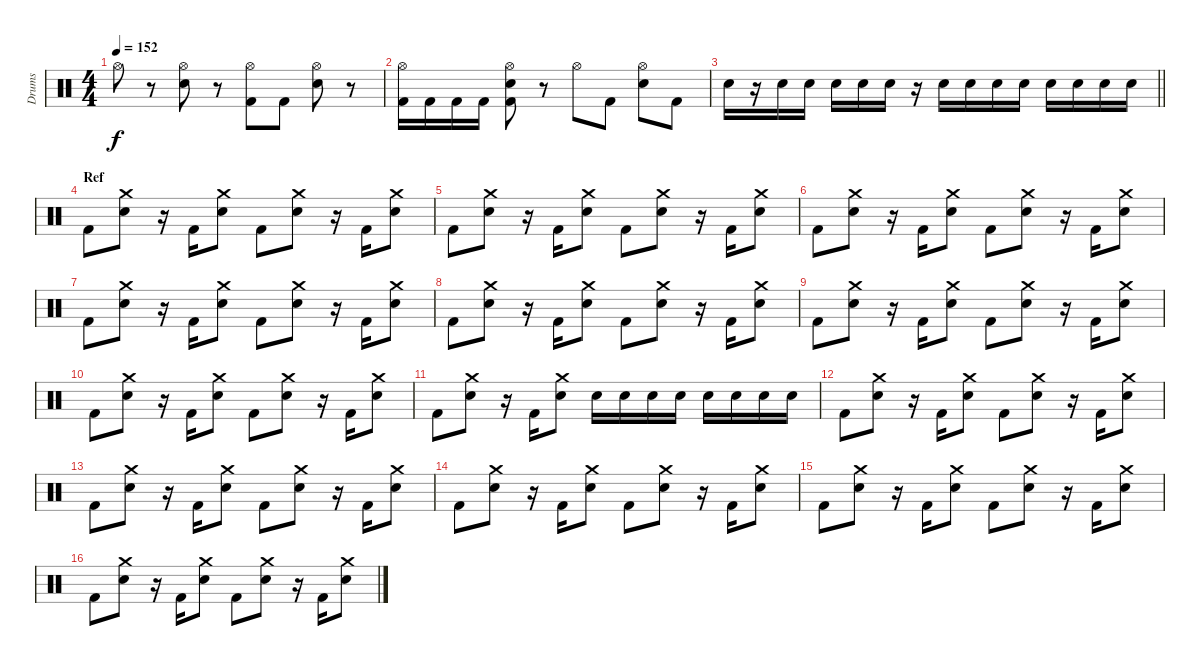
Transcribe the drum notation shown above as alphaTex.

\track ("Drums" "Drums") {instrument percussion}
\staff
\articulation defaults
\ts (4 4)
\tempo 152
\clef neutral
\ks c "Hi-Hat (open)".8{dy f}
r.8 ("Hi-Hat (open)" "Electric Snare (hit)").8 r.8 ("Hi-Hat (open)" "Kick (hit) 2").8 "Kick (hit) 2".8 ("Hi-Hat (open)" "Electric Snare (hit)").8 r.8 |
("Hi-Hat (open)" "Kick (hit) 2").16 "Kick (hit) 2".16 "Kick (hit) 2".16 "Kick (hit) 2".16 ("Hi-Hat (open)" "Electric Snare (hit)" "Kick (hit) 2").8 r.8 "Hi-Hat (open)".8 "Kick (hit) 2".8 ("Hi-Hat (open)" "Electric Snare (hit)").8 "Kick (hit) 2".8 |
\barLineRight lightlight "Electric Snare (hit)".16
r.16 "Electric Snare (hit)".16 "Electric Snare (hit)".16 "Electric Snare (hit)".16 "Electric Snare (hit)".16 "Electric Snare (hit)".16 r.16 "Electric Snare (hit)".16 "Electric Snare (hit)".16 "Electric Snare (hit)".16 "Electric Snare (hit)".16 "Electric Snare (hit)".16 "Electric Snare (hit)".16 "Electric Snare (hit)".16 "Electric Snare (hit)".16 |
\section ("" "Ref")
"Kick (hit) 2".8 ("Crash medium (hit)" "Electric Snare (hit)").8 r.16 "Kick (hit) 2".16 ("Crash medium (hit)" "Electric Snare (hit)").8 "Kick (hit) 2".8 ("Crash medium (hit)" "Electric Snare (hit)").8 r.16 "Kick (hit) 2".16 ("Crash medium (hit)" "Electric Snare (hit)").8 |
"Kick (hit) 2".8 ("Crash medium (hit)" "Electric Snare (hit)").8 r.16 "Kick (hit) 2".16 ("Crash medium (hit)" "Electric Snare (hit)").8 "Kick (hit) 2".8 ("Crash medium (hit)" "Electric Snare (hit)").8 r.16 "Kick (hit) 2".16 ("Crash medium (hit)" "Electric Snare (hit)").8 |
"Kick (hit) 2".8 ("Crash medium (hit)" "Electric Snare (hit)").8 r.16 "Kick (hit) 2".16 ("Crash medium (hit)" "Electric Snare (hit)").8 "Kick (hit) 2".8 ("Crash medium (hit)" "Electric Snare (hit)").8 r.16 "Kick (hit) 2".16 ("Crash medium (hit)" "Electric Snare (hit)").8 |
"Kick (hit) 2".8 ("Crash medium (hit)" "Electric Snare (hit)").8 r.16 "Kick (hit) 2".16 ("Crash medium (hit)" "Electric Snare (hit)").8 "Kick (hit) 2".8 ("Crash medium (hit)" "Electric Snare (hit)").8 r.16 "Kick (hit) 2".16 ("Crash medium (hit)" "Electric Snare (hit)").8 |
"Kick (hit) 2".8 ("Crash medium (hit)" "Electric Snare (hit)").8 r.16 "Kick (hit) 2".16 ("Crash medium (hit)" "Electric Snare (hit)").8 "Kick (hit) 2".8 ("Crash medium (hit)" "Electric Snare (hit)").8 r.16 "Kick (hit) 2".16 ("Crash medium (hit)" "Electric Snare (hit)").8 |
"Kick (hit) 2".8 ("Crash medium (hit)" "Electric Snare (hit)").8 r.16 "Kick (hit) 2".16 ("Crash medium (hit)" "Electric Snare (hit)").8 "Kick (hit) 2".8 ("Crash medium (hit)" "Electric Snare (hit)").8 r.16 "Kick (hit) 2".16 ("Crash medium (hit)" "Electric Snare (hit)").8 |
"Kick (hit) 2".8 ("Crash medium (hit)" "Electric Snare (hit)").8 r.16 "Kick (hit) 2".16 ("Crash medium (hit)" "Electric Snare (hit)").8 "Kick (hit) 2".8 ("Crash medium (hit)" "Electric Snare (hit)").8 r.16 "Kick (hit) 2".16 ("Crash medium (hit)" "Electric Snare (hit)").8 |
"Kick (hit) 2".8 ("Crash medium (hit)" "Electric Snare (hit)").8 r.16 "Kick (hit) 2".16 ("Crash medium (hit)" "Electric Snare (hit)").8 "Electric Snare (hit)".16 "Electric Snare (hit)".16 "Electric Snare (hit)".16 "Electric Snare (hit)".16 "Electric Snare (hit)".16 "Electric Snare (hit)".16 "Electric Snare (hit)".16 "Electric Snare (hit)".16 |
"Kick (hit) 2".8 ("Crash medium (hit)" "Electric Snare (hit)").8 r.16 "Kick (hit) 2".16 ("Crash medium (hit)" "Electric Snare (hit)").8 "Kick (hit) 2".8 ("Crash medium (hit)" "Electric Snare (hit)").8 r.16 "Kick (hit) 2".16 ("Crash medium (hit)" "Electric Snare (hit)").8 |
"Kick (hit) 2".8 ("Crash medium (hit)" "Electric Snare (hit)").8 r.16 "Kick (hit) 2".16 ("Crash medium (hit)" "Electric Snare (hit)").8 "Kick (hit) 2".8 ("Crash medium (hit)" "Electric Snare (hit)").8 r.16 "Kick (hit) 2".16 ("Crash medium (hit)" "Electric Snare (hit)").8 |
"Kick (hit) 2".8 ("Crash medium (hit)" "Electric Snare (hit)").8 r.16 "Kick (hit) 2".16 ("Crash medium (hit)" "Electric Snare (hit)").8 "Kick (hit) 2".8 ("Crash medium (hit)" "Electric Snare (hit)").8 r.16 "Kick (hit) 2".16 ("Crash medium (hit)" "Electric Snare (hit)").8 |
"Kick (hit) 2".8 ("Crash medium (hit)" "Electric Snare (hit)").8 r.16 "Kick (hit) 2".16 ("Crash medium (hit)" "Electric Snare (hit)").8 "Kick (hit) 2".8 ("Crash medium (hit)" "Electric Snare (hit)").8 r.16 "Kick (hit) 2".16 ("Crash medium (hit)" "Electric Snare (hit)").8 |
"Kick (hit) 2".8 ("Crash medium (hit)" "Electric Snare (hit)").8 r.16 "Kick (hit) 2".16 ("Crash medium (hit)" "Electric Snare (hit)").8 "Kick (hit) 2".8 ("Crash medium (hit)" "Electric Snare (hit)").8 r.16 "Kick (hit) 2".16 ("Crash medium (hit)" "Electric Snare (hit)").8
